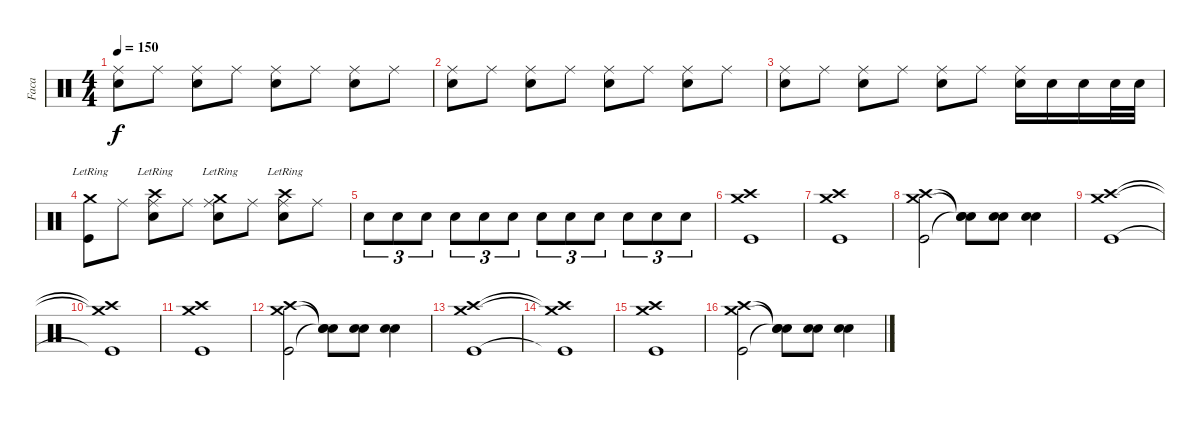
\track ("Faca" "Faca") {instrument percussion}
\staff {score}
\articulation defaults
\ts (4 4)
\tempo 150
\clef neutral
\ks c
("Ride (middle)" "Snare (hit) 2").8{dy f} "Ride (middle)".8 ("Ride (middle)" "Snare (hit) 2").8 "Ride (middle)".8 ("Ride (middle)" "Snare (hit) 2").8 "Ride (middle)".8 ("Ride (middle)" "Snare (hit) 2").8 "Ride (middle)".8 |
("Ride (middle)" "Snare (hit) 2").8 "Ride (middle)".8 ("Ride (middle)" "Snare (hit) 2").8 "Ride (middle)".8 ("Ride (middle)" "Snare (hit) 2").8 "Ride (middle)".8 ("Ride (middle)" "Snare (hit) 2").8 "Ride (middle)".8 |
("Ride (middle)" "Snare (hit) 2").8 "Ride (middle)".8 ("Ride (middle)" "Snare (hit) 2").8 "Ride (middle)".8 ("Ride (middle)" "Snare (hit) 2").8 "Ride (middle)".8 ("Ride (middle)" "Snare (hit) 2").16 "Snare (hit) 2".16 "Snare (hit) 2".16 "Snare (hit) 2".32 "Snare (hit) 2".32 |
("Crash medium (hit)"{lr} "Kick (hit)").8 "Ride (middle)".8 ("Crash high (hit)"{lr} "Ride (middle)" "Snare (hit) 2").8 "Ride (middle)".8 ("Crash medium (hit)"{lr} "Ride (middle)" "Snare (hit) 2").8 "Ride (middle)".8 ("Crash high (hit)"{lr} "Ride (middle)" "Snare (hit) 2").8 "Ride (middle)".8 |
"Snare (hit) 2".8{tu (3 2)} "Snare (hit) 2".8{tu (3 2)} "Snare (hit) 2".8{tu (3 2)} "Snare (hit) 2".8{tu (3 2)} "Snare (hit) 2".8{tu (3 2)} "Snare (hit) 2".8{tu (3 2)} "Snare (hit) 2".8{tu (3 2)} "Snare (hit) 2".8{tu (3 2)} "Snare (hit) 2".8{tu (3 2)} "Snare (hit) 2".8{tu (3 2)} "Snare (hit) 2".8{tu (3 2)} "Snare (hit) 2".8{tu (3 2)} |
("Crash medium (hit)" "Crash high (hit)" "Kick (hit)").1 |
("Crash medium (hit)" "Crash high (hit)" "Kick (hit)").1 |
("Crash medium (hit)" "Crash high (hit)" "Kick (hit)").2 ("Snare (hit)"{t} "Snare (hit)"{t} "Snare (hit)"{t}).8 ("Snare (hit) 2" "Snare (hit) 2").8{bd 480} ("Snare (hit) 2" "Snare (hit) 2").4{bd 480} |
("Crash medium (hit)" "Crash high (hit)" "Kick (hit)").1 |
("Crash medium (hit)"{t} "Crash high (hit)"{t} "Kick (hit)"{t}).1 |
("Crash medium (hit)" "Crash high (hit)" "Kick (hit)").1 |
("Crash medium (hit)" "Crash high (hit)" "Kick (hit)").2 ("Snare (hit)"{t} "Snare (hit)"{t} "Snare (hit)"{t}).8 ("Snare (hit) 2" "Snare (hit) 2").8{bd 480} ("Snare (hit) 2" "Snare (hit) 2").4{bd 480} |
("Crash medium (hit)" "Crash high (hit)" "Kick (hit)").1 |
("Crash medium (hit)"{t} "Crash high (hit)"{t} "Kick (hit)"{t}).1 |
("Crash medium (hit)" "Crash high (hit)" "Kick (hit)").1 |
("Crash medium (hit)" "Crash high (hit)" "Kick (hit)").2 ("Snare (hit)"{t} "Snare (hit)"{t} "Snare (hit)"{t}).8 ("Snare (hit) 2" "Snare (hit) 2").8{bd 480} ("Snare (hit) 2" "Snare (hit) 2").4{bd 480}
